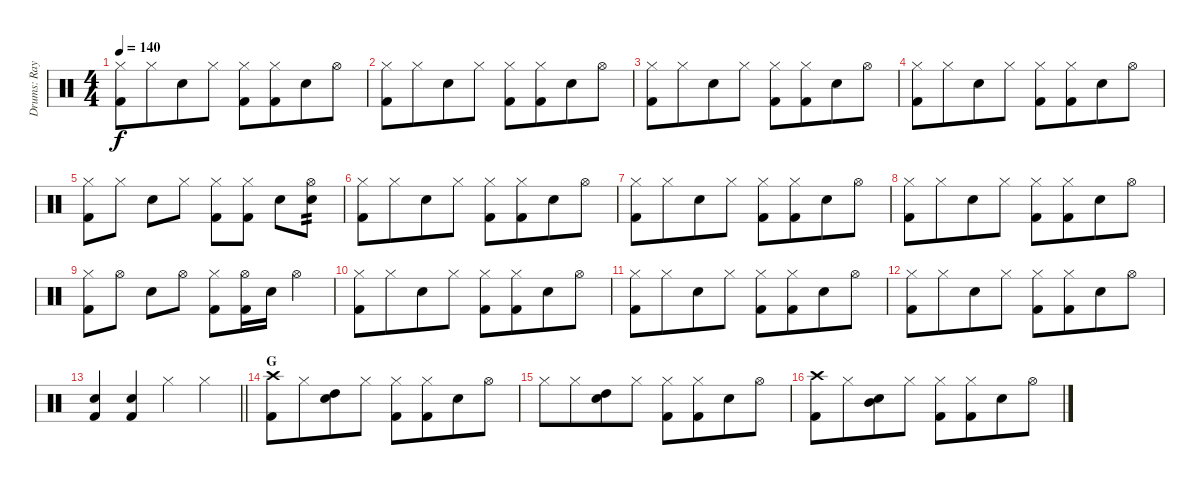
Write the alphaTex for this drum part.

\track ("Drums: Ray Cooper" "Drums: Ray") {instrument percussion}
\staff {score}
\articulation defaults
\ts (4 4)
\tempo 140
\clef neutral
\ks c
("Hi-Hat (closed)" "Kick (hit) 2").8{dy f} "Hi-Hat (closed)".8{beam merge} "Electric Snare (hit)".8 "Hi-Hat (closed)".8 ("Hi-Hat (closed)" "Kick (hit) 2").8 ("Hi-Hat (closed)" "Kick (hit) 2").8{beam merge} "Electric Snare (hit)".8 "Hi-Hat (open)".8 |
("Hi-Hat (closed)" "Kick (hit) 2").8 "Hi-Hat (closed)".8{beam merge} "Electric Snare (hit)".8 "Hi-Hat (closed)".8 ("Hi-Hat (closed)" "Kick (hit) 2").8 ("Hi-Hat (closed)" "Kick (hit) 2").8{beam merge} "Electric Snare (hit)".8 "Hi-Hat (open)".8 |
("Hi-Hat (closed)" "Kick (hit) 2").8 "Hi-Hat (closed)".8{beam merge} "Electric Snare (hit)".8 "Hi-Hat (closed)".8 ("Hi-Hat (closed)" "Kick (hit) 2").8 ("Hi-Hat (closed)" "Kick (hit) 2").8{beam merge} "Electric Snare (hit)".8 "Hi-Hat (open)".8 |
("Hi-Hat (closed)" "Kick (hit) 2").8 "Hi-Hat (closed)".8{beam merge} "Electric Snare (hit)".8 "Hi-Hat (closed)".8 ("Hi-Hat (closed)" "Kick (hit) 2").8 ("Hi-Hat (closed)" "Kick (hit) 2").8{beam merge} "Electric Snare (hit)".8 "Hi-Hat (open)".8 |
("Hi-Hat (closed)" "Kick (hit) 2").8 "Hi-Hat (closed)".8 "Electric Snare (hit)".8 "Hi-Hat (closed)".8 ("Hi-Hat (closed)" "Kick (hit) 2").8 ("Hi-Hat (closed)" "Kick (hit) 2").8 "Electric Snare (hit)".8 ("Hi-Hat (open)" "Electric Snare (hit)").8{tp 2} |
("Hi-Hat (closed)" "Kick (hit) 2").8 "Hi-Hat (closed)".8{beam merge} "Electric Snare (hit)".8 "Hi-Hat (closed)".8 ("Hi-Hat (closed)" "Kick (hit) 2").8 ("Hi-Hat (closed)" "Kick (hit) 2").8{beam merge} "Electric Snare (hit)".8 "Hi-Hat (open)".8 |
("Hi-Hat (closed)" "Kick (hit) 2").8 "Hi-Hat (closed)".8{beam merge} "Electric Snare (hit)".8 "Hi-Hat (closed)".8 ("Hi-Hat (closed)" "Kick (hit) 2").8 ("Hi-Hat (closed)" "Kick (hit) 2").8{beam merge} "Electric Snare (hit)".8 "Hi-Hat (open)".8 |
("Hi-Hat (closed)" "Kick (hit) 2").8 "Hi-Hat (closed)".8{beam merge} "Electric Snare (hit)".8 "Hi-Hat (closed)".8 ("Hi-Hat (closed)" "Kick (hit) 2").8 ("Hi-Hat (closed)" "Kick (hit) 2").8{beam merge} "Electric Snare (hit)".8 "Hi-Hat (open)".8 |
("Hi-Hat (closed)" "Kick (hit) 2").8 "Hi-Hat (open)".8 "Electric Snare (hit)".8 "Hi-Hat (open)".8 ("Hi-Hat (closed)" "Kick (hit) 2").8 ("Hi-Hat (open)" "Kick (hit) 2").16 "Electric Snare (hit)".16 "Hi-Hat (open)".4 |
("Hi-Hat (closed)" "Kick (hit) 2").8 "Hi-Hat (closed)".8{beam merge} "Electric Snare (hit)".8 "Hi-Hat (closed)".8 ("Hi-Hat (closed)" "Kick (hit) 2").8 ("Hi-Hat (closed)" "Kick (hit) 2").8{beam merge} "Electric Snare (hit)".8 "Hi-Hat (open)".8 |
("Hi-Hat (closed)" "Kick (hit) 2").8 "Hi-Hat (closed)".8{beam merge} "Electric Snare (hit)".8 "Hi-Hat (closed)".8 ("Hi-Hat (closed)" "Kick (hit) 2").8 ("Hi-Hat (closed)" "Kick (hit) 2").8{beam merge} "Electric Snare (hit)".8 "Hi-Hat (open)".8 |
("Hi-Hat (closed)" "Kick (hit) 2").8 "Hi-Hat (closed)".8{beam merge} "Electric Snare (hit)".8 "Hi-Hat (closed)".8 ("Hi-Hat (closed)" "Kick (hit) 2").8 ("Hi-Hat (closed)" "Kick (hit) 2").8{beam merge} "Electric Snare (hit)".8 "Hi-Hat (open)".8 |
\barLineRight lightlight
("Electric Snare (hit)" "Kick (hit) 2").4 ("Electric Snare (hit)" "Kick (hit) 2").4 "Hi-Hat (closed)".4 "Hi-Hat (closed)".4 |
\section ("" "G")
("Crash high (hit)" "Kick (hit) 2").8 "Hi-Hat (closed)".8{beam merge} ("Electric Snare (hit)" "High Tom (hit)").8 "Hi-Hat (closed)".8 ("Hi-Hat (closed)" "Kick (hit) 2").8 ("Hi-Hat (closed)" "Kick (hit) 2").8{beam merge} "Electric Snare (hit)".8 "Hi-Hat (open)".8 |
"Hi-Hat (closed)".8 "Hi-Hat (closed)".8{beam merge} ("Electric Snare (hit)" "High Tom (hit)").8 "Hi-Hat (closed)".8 ("Hi-Hat (closed)" "Kick (hit) 2").8 ("Hi-Hat (closed)" "Kick (hit) 2").8{beam merge} "Electric Snare (hit)".8 "Hi-Hat (open)".8 |
("Crash high (hit)" "Kick (hit) 2").8 "Hi-Hat (closed)".8{beam merge} ("Electric Snare (hit)" "Mid Tom (hit)").8 "Hi-Hat (closed)".8 ("Hi-Hat (closed)" "Kick (hit) 2").8 ("Hi-Hat (closed)" "Kick (hit) 2").8{beam merge} "Electric Snare (hit)".8 "Hi-Hat (open)".8
